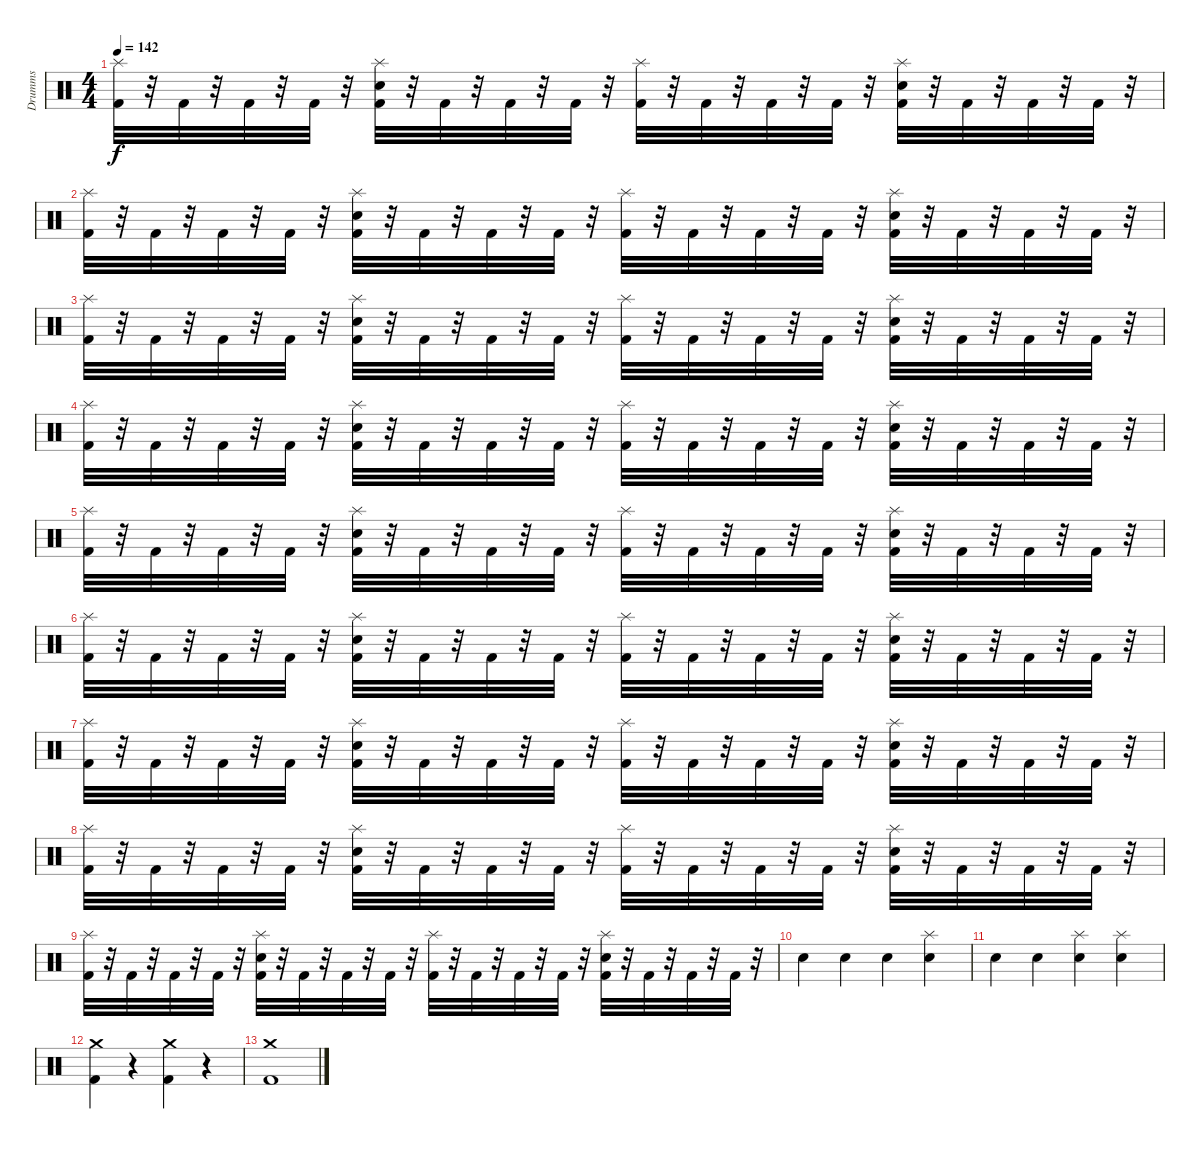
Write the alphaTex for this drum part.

\track ("Drumms" "Drumms") {instrument percussion}
\staff {score}
\articulation defaults
\ts (4 4)
\tempo 142
\clef neutral
\ks c
("Splash (hit)" "Kick (hit) 2").32{dy f} r.32 "Kick (hit) 2".32 r.32 "Kick (hit) 2".32 r.32 "Kick (hit) 2".32 r.32 ("Splash (hit)" "Kick (hit) 2" "Electric Snare (hit)").32 r.32 "Kick (hit) 2".32 r.32 "Kick (hit) 2".32 r.32 "Kick (hit) 2".32 r.32 ("Splash (hit)" "Kick (hit) 2").32 r.32 "Kick (hit) 2".32 r.32 "Kick (hit) 2".32 r.32 "Kick (hit) 2".32 r.32 ("Splash (hit)" "Kick (hit) 2" "Electric Snare (hit)").32 r.32 "Kick (hit) 2".32 r.32 "Kick (hit) 2".32 r.32 "Kick (hit) 2".32 r.32 |
("Splash (hit)" "Kick (hit) 2").32 r.32 "Kick (hit) 2".32 r.32 "Kick (hit) 2".32 r.32 "Kick (hit) 2".32 r.32 ("Splash (hit)" "Kick (hit) 2" "Electric Snare (hit)").32 r.32 "Kick (hit) 2".32 r.32 "Kick (hit) 2".32 r.32 "Kick (hit) 2".32 r.32 ("Splash (hit)" "Kick (hit) 2").32 r.32 "Kick (hit) 2".32 r.32 "Kick (hit) 2".32 r.32 "Kick (hit) 2".32 r.32 ("Splash (hit)" "Kick (hit) 2" "Electric Snare (hit)").32 r.32 "Kick (hit) 2".32 r.32 "Kick (hit) 2".32 r.32 "Kick (hit) 2".32 r.32 |
("Splash (hit)" "Kick (hit) 2").32 r.32 "Kick (hit) 2".32 r.32 "Kick (hit) 2".32 r.32 "Kick (hit) 2".32 r.32 ("Splash (hit)" "Kick (hit) 2" "Electric Snare (hit)").32 r.32 "Kick (hit) 2".32 r.32 "Kick (hit) 2".32 r.32 "Kick (hit) 2".32 r.32 ("Splash (hit)" "Kick (hit) 2").32 r.32 "Kick (hit) 2".32 r.32 "Kick (hit) 2".32 r.32 "Kick (hit) 2".32 r.32 ("Splash (hit)" "Kick (hit) 2" "Electric Snare (hit)").32 r.32 "Kick (hit) 2".32 r.32 "Kick (hit) 2".32 r.32 "Kick (hit) 2".32 r.32 |
("Splash (hit)" "Kick (hit) 2").32 r.32 "Kick (hit) 2".32 r.32 "Kick (hit) 2".32 r.32 "Kick (hit) 2".32 r.32 ("Splash (hit)" "Kick (hit) 2" "Electric Snare (hit)").32 r.32 "Kick (hit) 2".32 r.32 "Kick (hit) 2".32 r.32 "Kick (hit) 2".32 r.32 ("Splash (hit)" "Kick (hit) 2").32 r.32 "Kick (hit) 2".32 r.32 "Kick (hit) 2".32 r.32 "Kick (hit) 2".32 r.32 ("Splash (hit)" "Kick (hit) 2" "Electric Snare (hit)").32 r.32 "Kick (hit) 2".32 r.32 "Kick (hit) 2".32 r.32 "Kick (hit) 2".32 r.32 |
("Splash (hit)" "Kick (hit) 2").32 r.32 "Kick (hit) 2".32 r.32 "Kick (hit) 2".32 r.32 "Kick (hit) 2".32 r.32 ("Splash (hit)" "Kick (hit) 2" "Electric Snare (hit)").32 r.32 "Kick (hit) 2".32 r.32 "Kick (hit) 2".32 r.32 "Kick (hit) 2".32 r.32 ("Splash (hit)" "Kick (hit) 2").32 r.32 "Kick (hit) 2".32 r.32 "Kick (hit) 2".32 r.32 "Kick (hit) 2".32 r.32 ("Splash (hit)" "Kick (hit) 2" "Electric Snare (hit)").32 r.32 "Kick (hit) 2".32 r.32 "Kick (hit) 2".32 r.32 "Kick (hit) 2".32 r.32 |
("Splash (hit)" "Kick (hit) 2").32 r.32 "Kick (hit) 2".32 r.32 "Kick (hit) 2".32 r.32 "Kick (hit) 2".32 r.32 ("Splash (hit)" "Kick (hit) 2" "Electric Snare (hit)").32 r.32 "Kick (hit) 2".32 r.32 "Kick (hit) 2".32 r.32 "Kick (hit) 2".32 r.32 ("Splash (hit)" "Kick (hit) 2").32 r.32 "Kick (hit) 2".32 r.32 "Kick (hit) 2".32 r.32 "Kick (hit) 2".32 r.32 ("Splash (hit)" "Kick (hit) 2" "Electric Snare (hit)").32 r.32 "Kick (hit) 2".32 r.32 "Kick (hit) 2".32 r.32 "Kick (hit) 2".32 r.32 |
("Splash (hit)" "Kick (hit) 2").32 r.32 "Kick (hit) 2".32 r.32 "Kick (hit) 2".32 r.32 "Kick (hit) 2".32 r.32 ("Splash (hit)" "Kick (hit) 2" "Electric Snare (hit)").32 r.32 "Kick (hit) 2".32 r.32 "Kick (hit) 2".32 r.32 "Kick (hit) 2".32 r.32 ("Splash (hit)" "Kick (hit) 2").32 r.32 "Kick (hit) 2".32 r.32 "Kick (hit) 2".32 r.32 "Kick (hit) 2".32 r.32 ("Splash (hit)" "Kick (hit) 2" "Electric Snare (hit)").32 r.32 "Kick (hit) 2".32 r.32 "Kick (hit) 2".32 r.32 "Kick (hit) 2".32 r.32 |
("Splash (hit)" "Kick (hit) 2").32 r.32 "Kick (hit) 2".32 r.32 "Kick (hit) 2".32 r.32 "Kick (hit) 2".32 r.32 ("Splash (hit)" "Kick (hit) 2" "Electric Snare (hit)").32 r.32 "Kick (hit) 2".32 r.32 "Kick (hit) 2".32 r.32 "Kick (hit) 2".32 r.32 ("Splash (hit)" "Kick (hit) 2").32 r.32 "Kick (hit) 2".32 r.32 "Kick (hit) 2".32 r.32 "Kick (hit) 2".32 r.32 ("Splash (hit)" "Kick (hit) 2" "Electric Snare (hit)").32 r.32 "Kick (hit) 2".32 r.32 "Kick (hit) 2".32 r.32 "Kick (hit) 2".32 r.32 |
("Splash (hit)" "Kick (hit) 2").32 r.32 "Kick (hit) 2".32 r.32 "Kick (hit) 2".32 r.32 "Kick (hit) 2".32 r.32 ("Splash (hit)" "Kick (hit) 2" "Electric Snare (hit)").32 r.32 "Kick (hit) 2".32 r.32 "Kick (hit) 2".32 r.32 "Kick (hit) 2".32 r.32 ("Splash (hit)" "Kick (hit) 2").32 r.32 "Kick (hit) 2".32 r.32 "Kick (hit) 2".32 r.32 "Kick (hit) 2".32 r.32 ("Splash (hit)" "Kick (hit) 2" "Electric Snare (hit)").32 r.32 "Kick (hit) 2".32 r.32 "Kick (hit) 2".32 r.32 "Kick (hit) 2".32 r.32 |
"Electric Snare (hit)".4 "Electric Snare (hit)".4 "Electric Snare (hit)".4 ("Splash (hit)" "Snare (hit) 2").4 |
"Electric Snare (hit)".4 "Electric Snare (hit)".4 ("Splash (hit)" "Electric Snare (hit)").4 ("Splash (hit)" "Snare (hit) 2").4 |
("Crash medium (hit)" "Kick (hit) 2").4 r.4 ("Crash medium (hit)" "Kick (hit) 2").4 r.4 |
("Crash medium (hit)" "Kick (hit) 2").1
